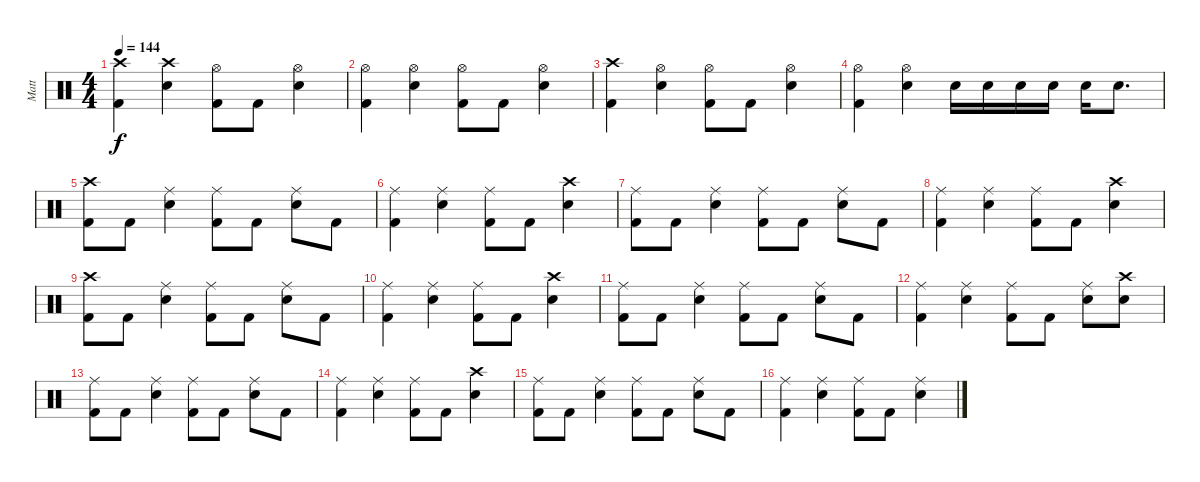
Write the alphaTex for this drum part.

\track ("Matt" "Matt") {instrument percussion}
\staff {score}
\articulation defaults
\ts (4 4)
\tempo 144
\clef neutral
\ks c
("Crash high (hit)" "Kick (hit) 2").4{dy f} ("Crash high (hit)" "Electric Snare (hit)").4 ("Hi-Hat (open)" "Kick (hit) 2").8 "Kick (hit) 2".8 ("Hi-Hat (open)" "Electric Snare (hit)").4 |
("Hi-Hat (open)" "Kick (hit) 2").4 ("Hi-Hat (open)" "Electric Snare (hit)").4 ("Hi-Hat (open)" "Kick (hit) 2").8 "Kick (hit) 2".8 ("Hi-Hat (open)" "Electric Snare (hit)").4 |
("Crash high (hit)" "Kick (hit) 2").4 ("Hi-Hat (open)" "Electric Snare (hit)").4 ("Hi-Hat (open)" "Kick (hit) 2").8 "Kick (hit) 2".8 ("Hi-Hat (open)" "Electric Snare (hit)").4 |
("Hi-Hat (open)" "Kick (hit) 2").4 ("Hi-Hat (open)" "Electric Snare (hit)").4 "Electric Snare (hit)".16 "Electric Snare (hit)".16 "Electric Snare (hit)".16 "Electric Snare (hit)".16 "Electric Snare (hit)".16 "Electric Snare (hit)".8{d} |
("Crash high (hit)" "Kick (hit) 2").8 "Kick (hit) 2".8 ("Ride (middle)" "Electric Snare (hit)").4 ("Ride (middle)" "Kick (hit) 2").8 "Kick (hit) 2".8 ("Ride (middle)" "Electric Snare (hit)").8 "Kick (hit) 2".8 |
("Ride (middle)" "Kick (hit) 2").4 ("Ride (middle)" "Electric Snare (hit)").4 ("Ride (middle)" "Kick (hit) 2").8 "Kick (hit) 2".8 ("Crash high (hit)" "Electric Snare (hit)").4 |
("Ride (middle)" "Kick (hit) 2").8 "Kick (hit) 2".8 ("Ride (middle)" "Electric Snare (hit)").4 ("Ride (middle)" "Kick (hit) 2").8 "Kick (hit) 2".8 ("Ride (middle)" "Electric Snare (hit)").8 "Kick (hit) 2".8 |
("Ride (middle)" "Kick (hit) 2").4 ("Ride (middle)" "Electric Snare (hit)").4 ("Ride (middle)" "Kick (hit) 2").8 "Kick (hit) 2".8 ("Crash high (hit)" "Electric Snare (hit)").4 |
("Crash high (hit)" "Kick (hit) 2").8 "Kick (hit) 2".8 ("Ride (middle)" "Electric Snare (hit)").4 ("Ride (middle)" "Kick (hit) 2").8 "Kick (hit) 2".8 ("Ride (middle)" "Electric Snare (hit)").8 "Kick (hit) 2".8 |
("Ride (middle)" "Kick (hit) 2").4 ("Ride (middle)" "Electric Snare (hit)").4 ("Ride (middle)" "Kick (hit) 2").8 "Kick (hit) 2".8 ("Crash high (hit)" "Electric Snare (hit)").4 |
("Ride (middle)" "Kick (hit) 2").8 "Kick (hit) 2".8 ("Ride (middle)" "Electric Snare (hit)").4 ("Ride (middle)" "Kick (hit) 2").8 "Kick (hit) 2".8 ("Ride (middle)" "Electric Snare (hit)").8 "Kick (hit) 2".8 |
("Ride (middle)" "Kick (hit) 2").4 ("Ride (middle)" "Electric Snare (hit)").4 ("Ride (middle)" "Kick (hit) 2").8 "Kick (hit) 2".8 ("Ride (middle)" "Electric Snare (hit)").8 ("Crash high (hit)" "Electric Snare (hit)").8 |
("Ride (middle)" "Kick (hit) 2").8 "Kick (hit) 2".8 ("Ride (middle)" "Electric Snare (hit)").4 ("Ride (middle)" "Kick (hit) 2").8 "Kick (hit) 2".8 ("Ride (middle)" "Electric Snare (hit)").8 "Kick (hit) 2".8 |
("Ride (middle)" "Kick (hit) 2").4 ("Ride (middle)" "Electric Snare (hit)").4 ("Ride (middle)" "Kick (hit) 2").8 "Kick (hit) 2".8 ("Crash high (hit)" "Electric Snare (hit)").4 |
("Ride (middle)" "Kick (hit) 2").8 "Kick (hit) 2".8 ("Ride (middle)" "Electric Snare (hit)").4 ("Ride (middle)" "Kick (hit) 2").8 "Kick (hit) 2".8 ("Ride (middle)" "Electric Snare (hit)").8 "Kick (hit) 2".8 |
("Ride (middle)" "Kick (hit) 2").4 ("Ride (middle)" "Electric Snare (hit)").4 ("Ride (middle)" "Kick (hit) 2").8 "Kick (hit) 2".8 ("Ride (middle)" "Electric Snare (hit)").4
